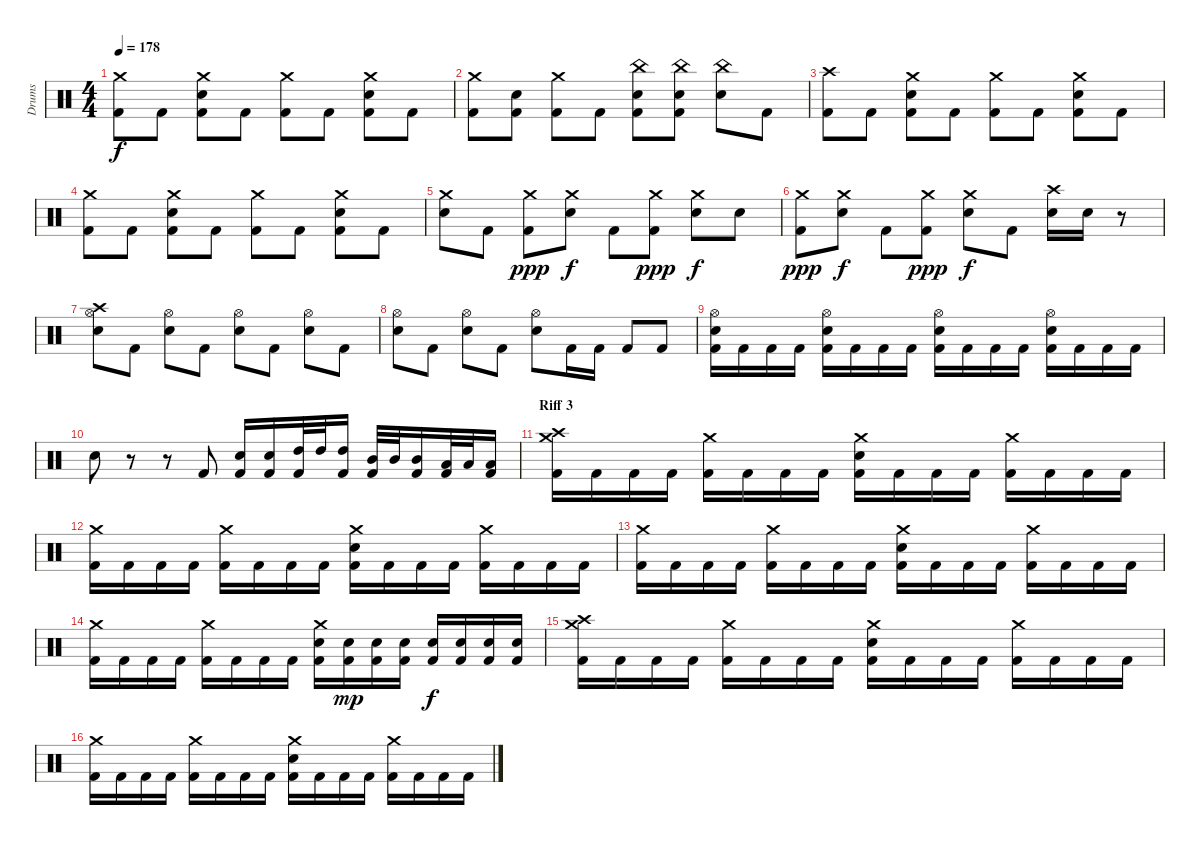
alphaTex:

\track ("Drums" "Drums") {instrument percussion}
\staff {score}
\articulation defaults
\ts (4 4)
\tempo 178
\clef neutral
\ks c
("Crash medium (hit)" "Kick (hit) 2").8{dy f} "Kick (hit) 2".8 ("Crash medium (hit)" "Electric Snare (hit)" "Kick (hit) 2").8 "Kick (hit) 2".8 ("Crash medium (hit)" "Kick (hit) 2").8 "Kick (hit) 2".8 ("Crash medium (hit)" "Electric Snare (hit)" "Kick (hit) 2").8 "Kick (hit) 2".8 |
("Crash medium (hit)" "Kick (hit) 2").8 ("Electric Snare (hit)" "Kick (hit) 2").8 ("Crash medium (hit)" "Kick (hit) 2").8 "Kick (hit) 2".8 ("China (hit)" "Electric Snare (hit)" "Kick (hit) 2").8 ("China (hit)" "Electric Snare (hit)" "Kick (hit) 2").8 ("China (hit)" "Electric Snare (hit)").8 "Kick (hit) 2".8 |
("Crash high (hit)" "Kick (hit) 2").8 "Kick (hit) 2".8 ("Crash medium (hit)" "Electric Snare (hit)" "Kick (hit) 2").8 "Kick (hit) 2".8 ("Crash medium (hit)" "Kick (hit) 2").8 "Kick (hit) 2".8 ("Crash medium (hit)" "Electric Snare (hit)" "Kick (hit) 2").8 "Kick (hit) 2".8 |
("Crash medium (hit)" "Kick (hit) 2").8 "Kick (hit) 2".8 ("Crash medium (hit)" "Electric Snare (hit)" "Kick (hit) 2").8 "Kick (hit) 2".8 ("Crash medium (hit)" "Kick (hit) 2").8 "Kick (hit) 2".8 ("Crash medium (hit)" "Electric Snare (hit)" "Kick (hit) 2").8 "Kick (hit) 2".8 |
("Crash medium (hit)" "Electric Snare (hit)").8 "Kick (hit) 2".8 ("Crash medium (hit)" "Kick (hit) 2").8{dy ppp} ("Crash medium (hit)" "Electric Snare (hit)").8{dy f} "Kick (hit) 2".8 ("Crash medium (hit)" "Kick (hit) 2").8{dy ppp} ("Crash medium (hit)" "Electric Snare (hit)").8{dy f} "Electric Snare (hit)".8 |
("Crash medium (hit)" "Kick (hit) 2").8{dy ppp} ("Crash medium (hit)" "Electric Snare (hit)").8{dy f} "Kick (hit) 2".8 ("Crash medium (hit)" "Kick (hit) 2").8{dy ppp} ("Crash medium (hit)" "Electric Snare (hit)").8{dy f} "Kick (hit) 2".8 ("Crash high (hit)" "Electric Snare (hit)").16 "Electric Snare (hit)".16 r.8 |
("Crash high (hit)" "Hi-Hat (open)" "Electric Snare (hit)").8 "Kick (hit) 2".8 ("Hi-Hat (open)" "Electric Snare (hit)").8 "Kick (hit) 2".8 ("Hi-Hat (open)" "Electric Snare (hit)").8 "Kick (hit) 2".8 ("Hi-Hat (open)" "Electric Snare (hit)").8 "Kick (hit) 2".8 |
("Hi-Hat (open)" "Electric Snare (hit)").8 "Kick (hit) 2".8 ("Hi-Hat (open)" "Electric Snare (hit)").8 "Kick (hit) 2".8 ("Hi-Hat (open)" "Electric Snare (hit)").8 "Kick (hit) 2".16 "Kick (hit) 2".16 "Kick (hit) 2".8 "Kick (hit) 2".8 |
("Hi-Hat (open)" "Electric Snare (hit)" "Kick (hit) 2").16 "Kick (hit) 2".16 "Kick (hit) 2".16 "Kick (hit) 2".16 ("Hi-Hat (open)" "Electric Snare (hit)" "Kick (hit) 2").16 "Kick (hit) 2".16 "Kick (hit) 2".16 "Kick (hit) 2".16 ("Hi-Hat (open)" "Electric Snare (hit)" "Kick (hit) 2").16 "Kick (hit) 2".16 "Kick (hit) 2".16 "Kick (hit) 2".16 ("Hi-Hat (open)" "Electric Snare (hit)" "Kick (hit) 2").16 "Kick (hit) 2".16 "Kick (hit) 2".16 "Kick (hit) 2".16 |
"Electric Snare (hit)".8 r.8 r.8 "Kick (hit) 2".8 ("Electric Snare (hit)" "Kick (hit) 2").16 ("Electric Snare (hit)" "Kick (hit) 2").16 ("High Tom (hit)" "Kick (hit) 2").32 "High Tom (hit)".32 ("High Tom (hit)" "Kick (hit) 2").16 ("Mid Tom (hit)" "Kick (hit) 2").32 "Mid Tom (hit)".32 ("Mid Tom (hit)" "Kick (hit) 2").16 ("Low Tom (hit)" "Kick (hit) 2").32 "Low Tom (hit)".32 ("Low Tom (hit)" "Kick (hit) 2").16 |
\section ("" "Riff 3")
("Crash high (hit)" "Crash medium (hit)" "Kick (hit) 2").16 "Kick (hit) 2".16 "Kick (hit) 2".16 "Kick (hit) 2".16 ("Crash medium (hit)" "Kick (hit) 2").16 "Kick (hit) 2".16 "Kick (hit) 2".16 "Kick (hit) 2".16 ("Crash medium (hit)" "Electric Snare (hit)" "Kick (hit) 2").16 "Kick (hit) 2".16 "Kick (hit) 2".16 "Kick (hit) 2".16 ("Crash medium (hit)" "Kick (hit) 2").16 "Kick (hit) 2".16 "Kick (hit) 2".16 "Kick (hit) 2".16 |
("Crash medium (hit)" "Kick (hit) 2").16 "Kick (hit) 2".16 "Kick (hit) 2".16 "Kick (hit) 2".16 ("Crash medium (hit)" "Kick (hit) 2").16 "Kick (hit) 2".16 "Kick (hit) 2".16 "Kick (hit) 2".16 ("Crash medium (hit)" "Electric Snare (hit)" "Kick (hit) 2").16 "Kick (hit) 2".16 "Kick (hit) 2".16 "Kick (hit) 2".16 ("Crash medium (hit)" "Kick (hit) 2").16 "Kick (hit) 2".16 "Kick (hit) 2".16 "Kick (hit) 2".16 |
("Crash medium (hit)" "Kick (hit) 2").16 "Kick (hit) 2".16 "Kick (hit) 2".16 "Kick (hit) 2".16 ("Crash medium (hit)" "Kick (hit) 2").16 "Kick (hit) 2".16 "Kick (hit) 2".16 "Kick (hit) 2".16 ("Crash medium (hit)" "Electric Snare (hit)" "Kick (hit) 2").16 "Kick (hit) 2".16 "Kick (hit) 2".16 "Kick (hit) 2".16 ("Crash medium (hit)" "Kick (hit) 2").16 "Kick (hit) 2".16 "Kick (hit) 2".16 "Kick (hit) 2".16 |
("Crash medium (hit)" "Kick (hit) 2").16 "Kick (hit) 2".16 "Kick (hit) 2".16 "Kick (hit) 2".16 ("Crash medium (hit)" "Kick (hit) 2").16 "Kick (hit) 2".16 "Kick (hit) 2".16 "Kick (hit) 2".16 ("Crash medium (hit)" "Electric Snare (hit)" "Kick (hit) 2").16 ("Electric Snare (hit)" "Kick (hit) 2").16{dy mp} ("Electric Snare (hit)" "Kick (hit) 2").16 ("Electric Snare (hit)" "Kick (hit) 2").16 ("Electric Snare (hit)" "Kick (hit) 2").16{dy f} ("Electric Snare (hit)" "Kick (hit) 2").16 ("Electric Snare (hit)" "Kick (hit) 2").16 ("Electric Snare (hit)" "Kick (hit) 2").16 |
("Crash high (hit)" "Crash medium (hit)" "Kick (hit) 2").16 "Kick (hit) 2".16 "Kick (hit) 2".16 "Kick (hit) 2".16 ("Crash medium (hit)" "Kick (hit) 2").16 "Kick (hit) 2".16 "Kick (hit) 2".16 "Kick (hit) 2".16 ("Crash medium (hit)" "Electric Snare (hit)" "Kick (hit) 2").16 "Kick (hit) 2".16 "Kick (hit) 2".16 "Kick (hit) 2".16 ("Crash medium (hit)" "Kick (hit) 2").16 "Kick (hit) 2".16 "Kick (hit) 2".16 "Kick (hit) 2".16 |
("Crash medium (hit)" "Kick (hit) 2").16 "Kick (hit) 2".16 "Kick (hit) 2".16 "Kick (hit) 2".16 ("Crash medium (hit)" "Kick (hit) 2").16 "Kick (hit) 2".16 "Kick (hit) 2".16 "Kick (hit) 2".16 ("Crash medium (hit)" "Electric Snare (hit)" "Kick (hit) 2").16 "Kick (hit) 2".16 "Kick (hit) 2".16 "Kick (hit) 2".16 ("Crash medium (hit)" "Kick (hit) 2").16 "Kick (hit) 2".16 "Kick (hit) 2".16 "Kick (hit) 2".16
